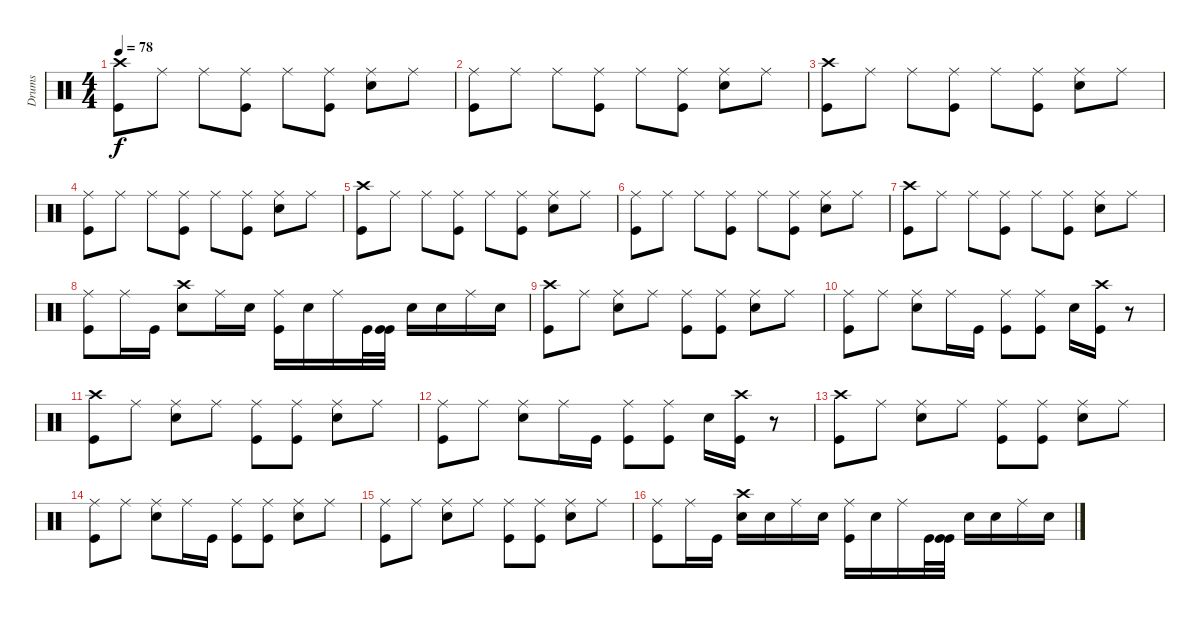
\track ("Drums" "Drums") {instrument percussion}
\staff {score}
\articulation defaults
\ts (4 4)
\tempo 78
\clef neutral
\ks c
("Kick (hit)" "Crash high (hit)").8{dy f} "Ride (middle)".8 "Ride (middle)".8 ("Kick (hit)" "Ride (middle)").8 "Ride (middle)".8 ("Kick (hit)" "Ride (middle)").8 ("Snare (hit) 2" "Ride (middle)").8 "Ride (middle)".8 |
("Kick (hit)" "Ride (middle)").8 "Ride (middle)".8 "Ride (middle)".8 ("Kick (hit)" "Ride (middle)").8 "Ride (middle)".8 ("Kick (hit)" "Ride (middle)").8 ("Snare (hit) 2" "Ride (middle)").8 "Ride (middle)".8 |
("Kick (hit)" "Crash high (hit)").8 "Ride (middle)".8 "Ride (middle)".8 ("Kick (hit)" "Ride (middle)").8 "Ride (middle)".8 ("Kick (hit)" "Ride (middle)").8 ("Snare (hit) 2" "Ride (middle)").8 "Ride (middle)".8 |
("Kick (hit)" "Ride (middle)").8 "Ride (middle)".8 "Ride (middle)".8 ("Kick (hit)" "Ride (middle)").8 "Ride (middle)".8 ("Kick (hit)" "Ride (middle)").8 ("Snare (hit) 2" "Ride (middle)").8 "Ride (middle)".8 |
("Kick (hit)" "Crash high (hit)").8 "Ride (middle)".8 "Ride (middle)".8 ("Kick (hit)" "Ride (middle)").8 "Ride (middle)".8 ("Kick (hit)" "Ride (middle)").8 ("Snare (hit) 2" "Ride (middle)").8 "Ride (middle)".8 |
("Kick (hit)" "Ride (middle)").8 "Ride (middle)".8 "Ride (middle)".8 ("Kick (hit)" "Ride (middle)").8 "Ride (middle)".8 ("Kick (hit)" "Ride (middle)").8 ("Snare (hit) 2" "Ride (middle)").8 "Ride (middle)".8 |
("Kick (hit)" "Crash high (hit)").8 "Ride (middle)".8 "Ride (middle)".8 ("Kick (hit)" "Ride (middle)").8 "Ride (middle)".8 ("Kick (hit)" "Ride (middle)").8 ("Snare (hit) 2" "Ride (middle)").8 "Ride (middle)".8 |
("Kick (hit)" "Ride (middle)").8 "Ride (middle)".16 "Kick (hit)".16 ("Snare (hit) 2" "Crash high (hit)").8 "Ride (middle)".16 "Snare (hit) 2".16 ("Kick (hit)" "Ride (middle)").16 "Snare (hit) 2".16 "Ride (middle)".16 "Kick (hit)".32 ("Kick (hit)" "Kick (hit)").32 "Snare (hit) 2".16 "Snare (hit) 2".16 "Ride (middle)".16 "Snare (hit) 2".16 |
("Kick (hit)" "Crash high (hit)").8 "Ride (middle)".8 ("Snare (hit) 2" "Ride (middle)").8 "Ride (middle)".8 ("Kick (hit)" "Ride (middle)").8 ("Kick (hit)" "Ride (middle)").8 ("Snare (hit) 2" "Ride (middle)").8 "Ride (middle)".8 |
("Kick (hit)" "Ride (middle)").8 "Ride (middle)".8 ("Snare (hit) 2" "Ride (middle)").8 "Ride (middle)".16 "Kick (hit)".16 ("Kick (hit)" "Ride (middle)").8 ("Kick (hit)" "Ride (middle)").8 "Snare (hit) 2".16 ("Kick (hit)" "Crash high (hit)").16 r.8 |
("Kick (hit)" "Crash high (hit)").8 "Ride (middle)".8 ("Snare (hit) 2" "Ride (middle)").8 "Ride (middle)".8 ("Kick (hit)" "Ride (middle)").8 ("Kick (hit)" "Ride (middle)").8 ("Snare (hit) 2" "Ride (middle)").8 "Ride (middle)".8 |
("Kick (hit)" "Ride (middle)").8 "Ride (middle)".8 ("Snare (hit) 2" "Ride (middle)").8 "Ride (middle)".16 "Kick (hit)".16 ("Kick (hit)" "Ride (middle)").8 ("Kick (hit)" "Ride (middle)").8 "Snare (hit) 2".16 ("Kick (hit)" "Crash high (hit)").16 r.8 |
("Kick (hit)" "Crash high (hit)").8 "Ride (middle)".8 ("Snare (hit) 2" "Ride (middle)").8 "Ride (middle)".8 ("Kick (hit)" "Ride (middle)").8 ("Kick (hit)" "Ride (middle)").8 ("Snare (hit) 2" "Ride (middle)").8 "Ride (middle)".8 |
("Kick (hit)" "Ride (middle)").8 "Ride (middle)".8 ("Snare (hit) 2" "Ride (middle)").8 "Ride (middle)".16 "Kick (hit)".16 ("Kick (hit)" "Ride (middle)").8 ("Kick (hit)" "Ride (middle)").8 ("Snare (hit) 2" "Ride (middle)").8 "Ride (middle)".8 |
("Kick (hit)" "Ride (middle)").8 "Ride (middle)".8 ("Snare (hit) 2" "Ride (middle)").8 "Ride (middle)".8 ("Kick (hit)" "Ride (middle)").8 ("Kick (hit)" "Ride (middle)").8 ("Snare (hit) 2" "Ride (middle)").8 "Ride (middle)".8 |
("Kick (hit)" "Ride (middle)").8 "Ride (middle)".16 "Kick (hit)".16 ("Snare (hit) 2" "Crash high (hit)").16 "Snare (hit) 2".16 "Ride (middle)".16 "Snare (hit) 2".16 ("Kick (hit)" "Ride (middle)").16 "Snare (hit) 2".16 "Ride (middle)".16 "Kick (hit)".32 ("Kick (hit)" "Kick (hit)").32 "Snare (hit) 2".16 "Snare (hit) 2".16 "Ride (middle)".16 "Snare (hit) 2".16
